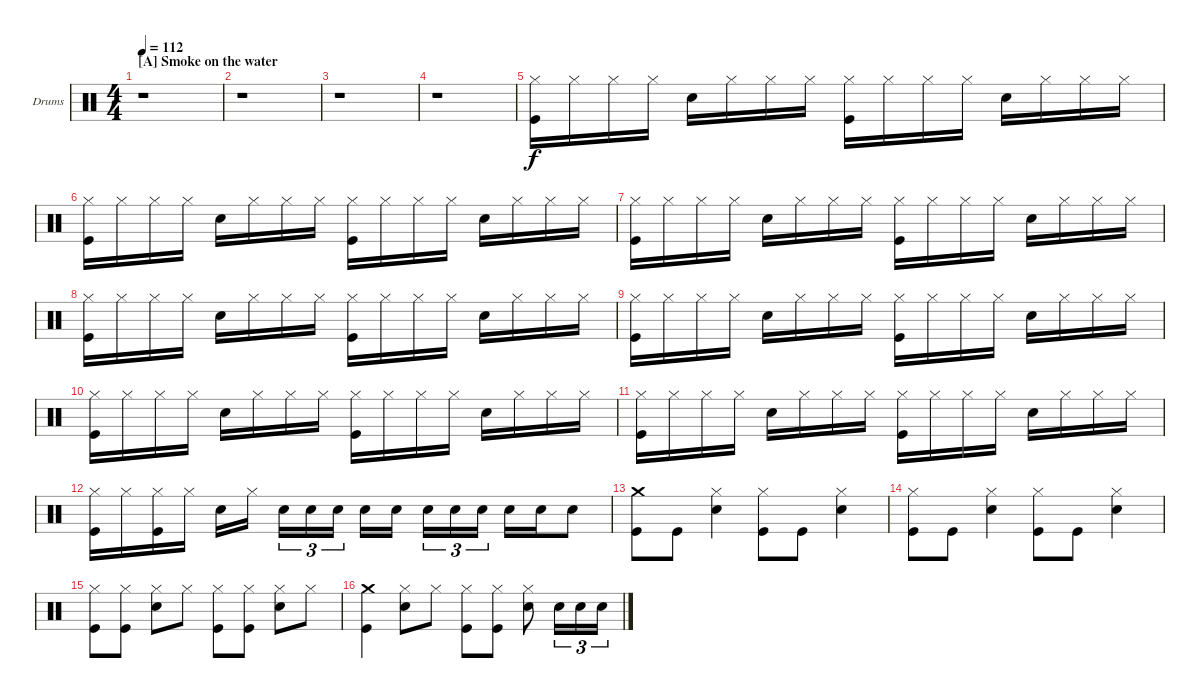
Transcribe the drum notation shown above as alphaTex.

\bracketExtendMode groupsimilarinstruments
\firstSystemTrackNameOrientation horizontal
\otherSystemsTrackNameOrientation horizontal
\track ("Drumkit" "Drums") {instrument percussion}
\staff {score}
\articulation defaults
\ts (4 4)
\beaming (8 2 2 2 2)
\section ("A" "Smoke on the water")
\tempo 112
\clef neutral
\ks c
r.1{dy f} |
r.1 |
r.1 |
r.1 |
("Hi-Hat (closed)" "Kick (hit)").16 "Hi-Hat (closed)".16 "Hi-Hat (closed)".16 "Hi-Hat (closed)".16 "Snare (hit) 2".16 "Hi-Hat (closed)".16 "Hi-Hat (closed)".16 "Hi-Hat (closed)".16 ("Hi-Hat (closed)" "Kick (hit)").16 "Hi-Hat (closed)".16 "Hi-Hat (closed)".16 "Hi-Hat (closed)".16 "Snare (hit) 2".16 "Hi-Hat (closed)".16 "Hi-Hat (closed)".16 "Hi-Hat (closed)".16 |
("Hi-Hat (closed)" "Kick (hit)").16 "Hi-Hat (closed)".16 "Hi-Hat (closed)".16 "Hi-Hat (closed)".16 "Snare (hit) 2".16 "Hi-Hat (closed)".16 "Hi-Hat (closed)".16 "Hi-Hat (closed)".16 ("Hi-Hat (closed)" "Kick (hit)").16 "Hi-Hat (closed)".16 "Hi-Hat (closed)".16 "Hi-Hat (closed)".16 "Snare (hit) 2".16 "Hi-Hat (closed)".16 "Hi-Hat (closed)".16 "Hi-Hat (closed)".16 |
("Hi-Hat (closed)" "Kick (hit)").16 "Hi-Hat (closed)".16 "Hi-Hat (closed)".16 "Hi-Hat (closed)".16 "Snare (hit) 2".16 "Hi-Hat (closed)".16 "Hi-Hat (closed)".16 "Hi-Hat (closed)".16 ("Hi-Hat (closed)" "Kick (hit)").16 "Hi-Hat (closed)".16 "Hi-Hat (closed)".16 "Hi-Hat (closed)".16 "Snare (hit) 2".16 "Hi-Hat (closed)".16 "Hi-Hat (closed)".16 "Hi-Hat (closed)".16 |
("Hi-Hat (closed)" "Kick (hit)").16 "Hi-Hat (closed)".16 "Hi-Hat (closed)".16 "Hi-Hat (closed)".16 "Snare (hit) 2".16 "Hi-Hat (closed)".16 "Hi-Hat (closed)".16 "Hi-Hat (closed)".16 ("Hi-Hat (closed)" "Kick (hit)").16 "Hi-Hat (closed)".16 "Hi-Hat (closed)".16 "Hi-Hat (closed)".16 "Snare (hit) 2".16 "Hi-Hat (closed)".16 "Hi-Hat (closed)".16 "Hi-Hat (closed)".16 |
("Hi-Hat (closed)" "Kick (hit)").16 "Hi-Hat (closed)".16 "Hi-Hat (closed)".16 "Hi-Hat (closed)".16 "Snare (hit) 2".16 "Hi-Hat (closed)".16 "Hi-Hat (closed)".16 "Hi-Hat (closed)".16 ("Hi-Hat (closed)" "Kick (hit)").16 "Hi-Hat (closed)".16 "Hi-Hat (closed)".16 "Hi-Hat (closed)".16 "Snare (hit) 2".16 "Hi-Hat (closed)".16 "Hi-Hat (closed)".16 "Hi-Hat (closed)".16 |
("Hi-Hat (closed)" "Kick (hit)").16 "Hi-Hat (closed)".16 "Hi-Hat (closed)".16 "Hi-Hat (closed)".16 "Snare (hit) 2".16 "Hi-Hat (closed)".16 "Hi-Hat (closed)".16 "Hi-Hat (closed)".16 ("Hi-Hat (closed)" "Kick (hit)").16 "Hi-Hat (closed)".16 "Hi-Hat (closed)".16 "Hi-Hat (closed)".16 "Snare (hit) 2".16 "Hi-Hat (closed)".16 "Hi-Hat (closed)".16 "Hi-Hat (closed)".16 |
("Hi-Hat (closed)" "Kick (hit)").16 "Hi-Hat (closed)".16 "Hi-Hat (closed)".16 "Hi-Hat (closed)".16 "Snare (hit) 2".16 "Hi-Hat (closed)".16 "Hi-Hat (closed)".16 "Hi-Hat (closed)".16 ("Hi-Hat (closed)" "Kick (hit)").16 "Hi-Hat (closed)".16 "Hi-Hat (closed)".16 "Hi-Hat (closed)".16 "Snare (hit) 2".16 "Hi-Hat (closed)".16 "Hi-Hat (closed)".16 "Hi-Hat (closed)".16 |
("Hi-Hat (closed)" "Kick (hit)").16 "Hi-Hat (closed)".16 ("Hi-Hat (closed)" "Kick (hit)").16 "Hi-Hat (closed)".16 "Snare (hit) 2".16 "Hi-Hat (closed)".16 "Snare (hit) 2".16{tu (3 2)} "Snare (hit) 2".16{tu (3 2)} "Snare (hit) 2".16{tu (3 2)} "Snare (hit) 2".16 "Snare (hit) 2".16 "Snare (hit) 2".16{tu (3 2)} "Snare (hit) 2".16{tu (3 2)} "Snare (hit) 2".16{tu (3 2)} "Snare (hit) 2".16 "Snare (hit) 2".16 "Snare (hit) 2".8 |
("Crash medium (hit)" "Kick (hit)").8 "Kick (hit)".8 ("Hi-Hat (closed)" "Snare (hit) 2").4 ("Hi-Hat (closed)" "Kick (hit)").8 "Kick (hit)".8 ("Hi-Hat (closed)" "Snare (hit) 2").4 |
("Hi-Hat (closed)" "Kick (hit)").8 "Kick (hit)".8 ("Hi-Hat (closed)" "Snare (hit) 2").4 ("Hi-Hat (closed)" "Kick (hit)").8 "Kick (hit)".8 ("Hi-Hat (closed)" "Snare (hit) 2").4 |
("Hi-Hat (closed)" "Kick (hit)").8 ("Hi-Hat (closed)" "Kick (hit)").8 ("Hi-Hat (closed)" "Snare (hit) 2").8 "Hi-Hat (closed)".8 ("Hi-Hat (closed)" "Kick (hit)").8 ("Hi-Hat (closed)" "Kick (hit)").8 ("Hi-Hat (closed)" "Snare (hit) 2").8 "Hi-Hat (closed)".8 |
("Crash medium (hit)" "Kick (hit)").4 ("Hi-Hat (closed)" "Snare (hit) 2").8 "Hi-Hat (closed)".8 ("Hi-Hat (closed)" "Kick (hit)").8 ("Hi-Hat (closed)" "Kick (hit)").8 ("Hi-Hat (closed)" "Snare (hit) 2").8 "Snare (hit) 2".16{tu (3 2)} "Snare (hit) 2".16{tu (3 2)} "Snare (hit) 2".16{tu (3 2)}
